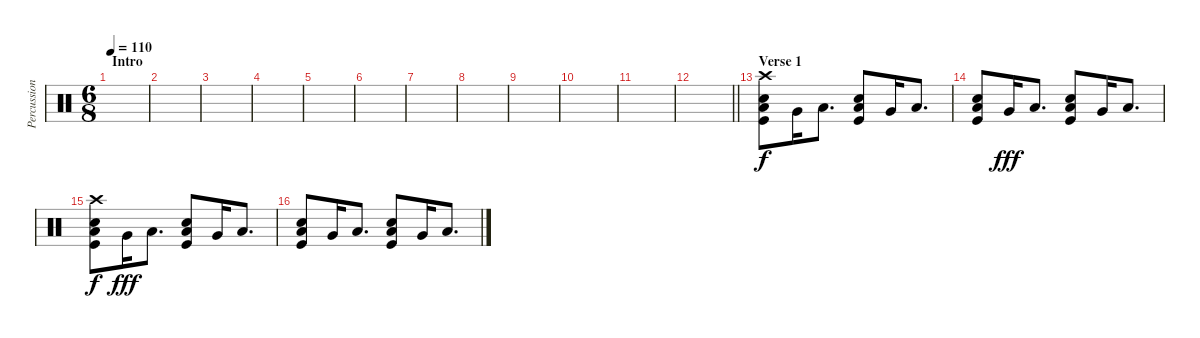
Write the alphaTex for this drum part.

\track ("Percussion" "Percussion") {instrument percussion}
\staff {score}
\articulation defaults
\ts (6 8)
\section ("" "Intro")
\tempo 110
\clef neutral
\ks c
|
|
|
|
|
|
|
|
|
|
|
\barLineRight lightlight
|
\section ("" "Verse 1")
("Crash high (hit)" "Electric Snare (hit)" "Low Floor Tom (hit)" "Kick (hit)").8 "Very Low Tom (hit)".16 "Low Floor Tom (hit)".8{d} ("Electric Snare (hit)" "Low Floor Tom (hit)" "Kick (hit)").8 "Very Low Tom (hit)".16 "Low Floor Tom (hit)".8{d} |
("Electric Snare (hit)" "Low Floor Tom (hit)" "Kick (hit)").8{dy f} "Very Low Tom (hit)".16{dy fff} "Low Floor Tom (hit)".8{d} ("Electric Snare (hit)" "Low Floor Tom (hit)" "Kick (hit)").8 "Very Low Tom (hit)".16 "Low Floor Tom (hit)".8{d} |
("Crash high (hit)" "Electric Snare (hit)" "Low Floor Tom (hit)" "Kick (hit)").8{dy f} "Very Low Tom (hit)".16{dy fff} "Low Floor Tom (hit)".8{d} ("Electric Snare (hit)" "Low Floor Tom (hit)" "Kick (hit)").8 "Very Low Tom (hit)".16 "Low Floor Tom (hit)".8{d} |
("Electric Snare (hit)" "Low Floor Tom (hit)" "Kick (hit)").8 "Very Low Tom (hit)".16 "Low Floor Tom (hit)".8{d} ("Electric Snare (hit)" "Low Floor Tom (hit)" "Kick (hit)").8 "Very Low Tom (hit)".16 "Low Floor Tom (hit)".8{d}
